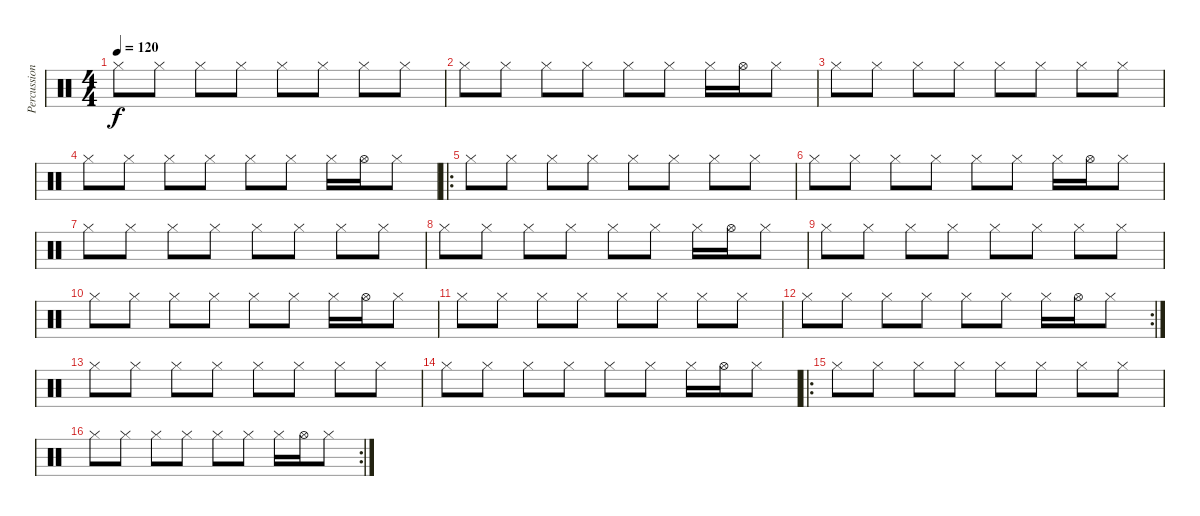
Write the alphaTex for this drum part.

\track ("Percussion" "Percussion") {instrument percussion}
\staff {score}
\articulation defaults
\ts (4 4)
\tempo 120
\clef neutral
\ks c "Hi-Hat (closed)".8{dy f} "Hi-Hat (closed)".8 "Hi-Hat (closed)".8 "Hi-Hat (closed)".8 "Hi-Hat (closed)".8 "Hi-Hat (closed)".8 "Hi-Hat (closed)".8 "Hi-Hat (closed)".8
|
"Hi-Hat (closed)".8 "Hi-Hat (closed)".8 "Hi-Hat (closed)".8 "Hi-Hat (closed)".8 "Hi-Hat (closed)".8 "Hi-Hat (closed)".8 "Hi-Hat (closed)".16 "Hi-Hat (open)".16 "Hi-Hat (closed)".8 |
"Hi-Hat (closed)".8 "Hi-Hat (closed)".8 "Hi-Hat (closed)".8 "Hi-Hat (closed)".8 "Hi-Hat (closed)".8 "Hi-Hat (closed)".8 "Hi-Hat (closed)".8 "Hi-Hat (closed)".8 |
"Hi-Hat (closed)".8 "Hi-Hat (closed)".8 "Hi-Hat (closed)".8 "Hi-Hat (closed)".8 "Hi-Hat (closed)".8 "Hi-Hat (closed)".8 "Hi-Hat (closed)".16 "Hi-Hat (open)".16 "Hi-Hat (closed)".8 |
\ro "Hi-Hat (closed)".8 "Hi-Hat (closed)".8 "Hi-Hat (closed)".8 "Hi-Hat (closed)".8 "Hi-Hat (closed)".8 "Hi-Hat (closed)".8 "Hi-Hat (closed)".8 "Hi-Hat (closed)".8
|
"Hi-Hat (closed)".8 "Hi-Hat (closed)".8 "Hi-Hat (closed)".8 "Hi-Hat (closed)".8 "Hi-Hat (closed)".8 "Hi-Hat (closed)".8 "Hi-Hat (closed)".16 "Hi-Hat (open)".16 "Hi-Hat (closed)".8 |
"Hi-Hat (closed)".8 "Hi-Hat (closed)".8 "Hi-Hat (closed)".8 "Hi-Hat (closed)".8 "Hi-Hat (closed)".8 "Hi-Hat (closed)".8 "Hi-Hat (closed)".8 "Hi-Hat (closed)".8 |
"Hi-Hat (closed)".8 "Hi-Hat (closed)".8 "Hi-Hat (closed)".8 "Hi-Hat (closed)".8 "Hi-Hat (closed)".8 "Hi-Hat (closed)".8 "Hi-Hat (closed)".16 "Hi-Hat (open)".16 "Hi-Hat (closed)".8 |
"Hi-Hat (closed)".8 "Hi-Hat (closed)".8 "Hi-Hat (closed)".8 "Hi-Hat (closed)".8 "Hi-Hat (closed)".8 "Hi-Hat (closed)".8 "Hi-Hat (closed)".8 "Hi-Hat (closed)".8 |
"Hi-Hat (closed)".8 "Hi-Hat (closed)".8 "Hi-Hat (closed)".8 "Hi-Hat (closed)".8 "Hi-Hat (closed)".8 "Hi-Hat (closed)".8 "Hi-Hat (closed)".16 "Hi-Hat (open)".16 "Hi-Hat (closed)".8 |
"Hi-Hat (closed)".8 "Hi-Hat (closed)".8 "Hi-Hat (closed)".8 "Hi-Hat (closed)".8 "Hi-Hat (closed)".8 "Hi-Hat (closed)".8 "Hi-Hat (closed)".8 "Hi-Hat (closed)".8 |
\rc 2 "Hi-Hat (closed)".8 "Hi-Hat (closed)".8 "Hi-Hat (closed)".8 "Hi-Hat (closed)".8 "Hi-Hat (closed)".8 "Hi-Hat (closed)".8 "Hi-Hat (closed)".16 "Hi-Hat (open)".16 "Hi-Hat (closed)".8
|
"Hi-Hat (closed)".8 "Hi-Hat (closed)".8 "Hi-Hat (closed)".8 "Hi-Hat (closed)".8 "Hi-Hat (closed)".8 "Hi-Hat (closed)".8 "Hi-Hat (closed)".8 "Hi-Hat (closed)".8 |
"Hi-Hat (closed)".8 "Hi-Hat (closed)".8 "Hi-Hat (closed)".8 "Hi-Hat (closed)".8 "Hi-Hat (closed)".8 "Hi-Hat (closed)".8 "Hi-Hat (closed)".16 "Hi-Hat (open)".16 "Hi-Hat (closed)".8 |
\ro "Hi-Hat (closed)".8 "Hi-Hat (closed)".8 "Hi-Hat (closed)".8 "Hi-Hat (closed)".8 "Hi-Hat (closed)".8 "Hi-Hat (closed)".8 "Hi-Hat (closed)".8 "Hi-Hat (closed)".8
|
\rc 2 "Hi-Hat (closed)".8 "Hi-Hat (closed)".8 "Hi-Hat (closed)".8 "Hi-Hat (closed)".8 "Hi-Hat (closed)".8 "Hi-Hat (closed)".8 "Hi-Hat (closed)".16 "Hi-Hat (open)".16 "Hi-Hat (closed)".8
